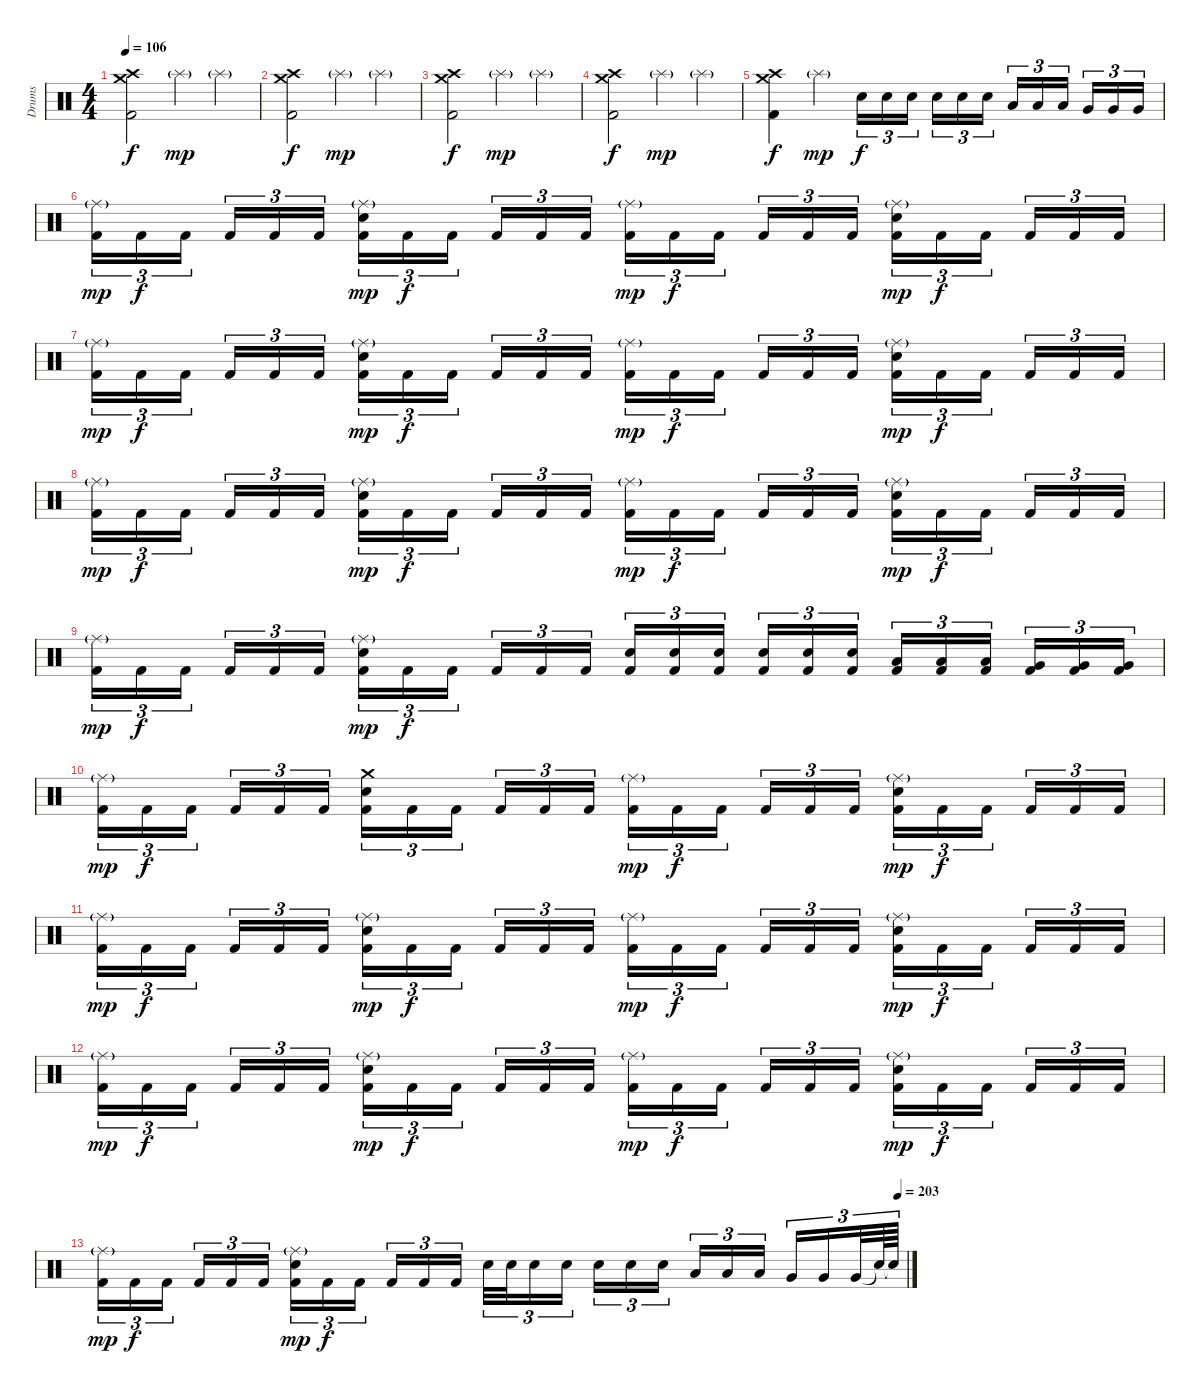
\track ("Drums" "Drums") {instrument percussion}
\staff {score}
\articulation defaults
\ts (4 4)
\tempo 106
\clef neutral
\ks c
("Crash medium (hit)" "Crash high (hit)" "Kick (hit) 2").2{dy f} "Splash (hit)"{g}.4{dy mp} "Splash (hit)"{g}.4 |
("Crash medium (hit)" "Crash high (hit)" "Kick (hit) 2").2{dy f} "Splash (hit)"{g}.4{dy mp} "Splash (hit)"{g}.4 |
("Crash medium (hit)" "Crash high (hit)" "Kick (hit) 2").2{dy f} "Splash (hit)"{g}.4{dy mp} "Splash (hit)"{g}.4 |
("Crash medium (hit)" "Crash high (hit)" "Kick (hit) 2").2{dy f} "Splash (hit)"{g}.4{dy mp} "Splash (hit)"{g}.4 |
("Crash medium (hit)" "Crash high (hit)" "Kick (hit) 2").4{dy f} "Splash (hit)"{g}.4{dy mp} "Electric Snare (hit)".16{tu (3 2) dy f} "Electric Snare (hit)".16{tu (3 2)} "Electric Snare (hit)".16{tu (3 2)} "Electric Snare (hit)".16{tu (3 2)} "Electric Snare (hit)".16{tu (3 2)} "Electric Snare (hit)".16{tu (3 2)} "Low Tom (hit)".16{tu (3 2)} "Low Tom (hit)".16{tu (3 2)} "Low Tom (hit)".16{tu (3 2)} "Very Low Tom (hit)".16{tu (3 2)} "Very Low Tom (hit)".16{tu (3 2)} "Very Low Tom (hit)".16{tu (3 2)} |
("Ride (middle)"{g} "Kick (hit) 2").16{tu (3 2) dy mp} "Kick (hit) 2".16{tu (3 2) dy f} "Kick (hit) 2".16{tu (3 2)} "Kick (hit) 2".16{tu (3 2)} "Kick (hit) 2".16{tu (3 2)} "Kick (hit) 2".16{tu (3 2)} ("Ride (middle)"{g} "Electric Snare (hit)" "Kick (hit) 2").16{tu (3 2) dy mp} "Kick (hit) 2".16{tu (3 2) dy f} "Kick (hit) 2".16{tu (3 2)} "Kick (hit) 2".16{tu (3 2)} "Kick (hit) 2".16{tu (3 2)} "Kick (hit) 2".16{tu (3 2)} ("Ride (middle)"{g} "Kick (hit) 2").16{tu (3 2) dy mp} "Kick (hit) 2".16{tu (3 2) dy f} "Kick (hit) 2".16{tu (3 2)} "Kick (hit) 2".16{tu (3 2)} "Kick (hit) 2".16{tu (3 2)} "Kick (hit) 2".16{tu (3 2)} ("Ride (middle)"{g} "Electric Snare (hit)" "Kick (hit) 2").16{tu (3 2) dy mp} "Kick (hit) 2".16{tu (3 2) dy f} "Kick (hit) 2".16{tu (3 2)} "Kick (hit) 2".16{tu (3 2)} "Kick (hit) 2".16{tu (3 2)} "Kick (hit) 2".16{tu (3 2)} |
("Ride (middle)"{g} "Kick (hit) 2").16{tu (3 2) dy mp} "Kick (hit) 2".16{tu (3 2) dy f} "Kick (hit) 2".16{tu (3 2)} "Kick (hit) 2".16{tu (3 2)} "Kick (hit) 2".16{tu (3 2)} "Kick (hit) 2".16{tu (3 2)} ("Ride (middle)"{g} "Electric Snare (hit)" "Kick (hit) 2").16{tu (3 2) dy mp} "Kick (hit) 2".16{tu (3 2) dy f} "Kick (hit) 2".16{tu (3 2)} "Kick (hit) 2".16{tu (3 2)} "Kick (hit) 2".16{tu (3 2)} "Kick (hit) 2".16{tu (3 2)} ("Ride (middle)"{g} "Kick (hit) 2").16{tu (3 2) dy mp} "Kick (hit) 2".16{tu (3 2) dy f} "Kick (hit) 2".16{tu (3 2)} "Kick (hit) 2".16{tu (3 2)} "Kick (hit) 2".16{tu (3 2)} "Kick (hit) 2".16{tu (3 2)} ("Ride (middle)"{g} "Electric Snare (hit)" "Kick (hit) 2").16{tu (3 2) dy mp} "Kick (hit) 2".16{tu (3 2) dy f} "Kick (hit) 2".16{tu (3 2)} "Kick (hit) 2".16{tu (3 2)} "Kick (hit) 2".16{tu (3 2)} "Kick (hit) 2".16{tu (3 2)} |
("Ride (middle)"{g} "Kick (hit) 2").16{tu (3 2) dy mp} "Kick (hit) 2".16{tu (3 2) dy f} "Kick (hit) 2".16{tu (3 2)} "Kick (hit) 2".16{tu (3 2)} "Kick (hit) 2".16{tu (3 2)} "Kick (hit) 2".16{tu (3 2)} ("Ride (middle)"{g} "Electric Snare (hit)" "Kick (hit) 2").16{tu (3 2) dy mp} "Kick (hit) 2".16{tu (3 2) dy f} "Kick (hit) 2".16{tu (3 2)} "Kick (hit) 2".16{tu (3 2)} "Kick (hit) 2".16{tu (3 2)} "Kick (hit) 2".16{tu (3 2)} ("Ride (middle)"{g} "Kick (hit) 2").16{tu (3 2) dy mp} "Kick (hit) 2".16{tu (3 2) dy f} "Kick (hit) 2".16{tu (3 2)} "Kick (hit) 2".16{tu (3 2)} "Kick (hit) 2".16{tu (3 2)} "Kick (hit) 2".16{tu (3 2)} ("Ride (middle)"{g} "Electric Snare (hit)" "Kick (hit) 2").16{tu (3 2) dy mp} "Kick (hit) 2".16{tu (3 2) dy f} "Kick (hit) 2".16{tu (3 2)} "Kick (hit) 2".16{tu (3 2)} "Kick (hit) 2".16{tu (3 2)} "Kick (hit) 2".16{tu (3 2)} |
("Ride (middle)"{g} "Kick (hit) 2").16{tu (3 2) dy mp} "Kick (hit) 2".16{tu (3 2) dy f} "Kick (hit) 2".16{tu (3 2)} "Kick (hit) 2".16{tu (3 2)} "Kick (hit) 2".16{tu (3 2)} "Kick (hit) 2".16{tu (3 2)} ("Ride (middle)"{g} "Electric Snare (hit)" "Kick (hit) 2").16{tu (3 2) dy mp} "Kick (hit) 2".16{tu (3 2) dy f} "Kick (hit) 2".16{tu (3 2)} "Kick (hit) 2".16{tu (3 2)} "Kick (hit) 2".16{tu (3 2)} "Kick (hit) 2".16{tu (3 2)} ("Electric Snare (hit)" "Kick (hit) 2").16{tu (3 2)} ("Electric Snare (hit)" "Kick (hit) 2").16{tu (3 2)} ("Electric Snare (hit)" "Kick (hit) 2").16{tu (3 2)} ("Electric Snare (hit)" "Kick (hit) 2").16{tu (3 2)} ("Electric Snare (hit)" "Kick (hit) 2").16{tu (3 2)} ("Electric Snare (hit)" "Kick (hit) 2").16{tu (3 2)} ("Low Tom (hit)" "Kick (hit) 2").16{tu (3 2)} ("Low Tom (hit)" "Kick (hit) 2").16{tu (3 2)} ("Low Tom (hit)" "Kick (hit) 2").16{tu (3 2)} ("Very Low Tom (hit)" "Kick (hit) 2").16{tu (3 2)} ("Very Low Tom (hit)" "Kick (hit) 2").16{tu (3 2)} ("Very Low Tom (hit)" "Kick (hit) 2").16{tu (3 2)} |
("Ride (middle)"{g} "Kick (hit) 2").16{tu (3 2) dy mp} "Kick (hit) 2".16{tu (3 2) dy f} "Kick (hit) 2".16{tu (3 2)} "Kick (hit) 2".16{tu (3 2)} "Kick (hit) 2".16{tu (3 2)} "Kick (hit) 2".16{tu (3 2)} ("Crash medium (hit)" "Electric Snare (hit)" "Kick (hit) 2").16{tu (3 2)} "Kick (hit) 2".16{tu (3 2)} "Kick (hit) 2".16{tu (3 2)} "Kick (hit) 2".16{tu (3 2)} "Kick (hit) 2".16{tu (3 2)} "Kick (hit) 2".16{tu (3 2)} ("Ride (middle)"{g} "Kick (hit) 2").16{tu (3 2) dy mp} "Kick (hit) 2".16{tu (3 2) dy f} "Kick (hit) 2".16{tu (3 2)} "Kick (hit) 2".16{tu (3 2)} "Kick (hit) 2".16{tu (3 2)} "Kick (hit) 2".16{tu (3 2)} ("Ride (middle)"{g} "Electric Snare (hit)" "Kick (hit) 2").16{tu (3 2) dy mp} "Kick (hit) 2".16{tu (3 2) dy f} "Kick (hit) 2".16{tu (3 2)} "Kick (hit) 2".16{tu (3 2)} "Kick (hit) 2".16{tu (3 2)} "Kick (hit) 2".16{tu (3 2)} |
("Ride (middle)"{g} "Kick (hit) 2").16{tu (3 2) dy mp} "Kick (hit) 2".16{tu (3 2) dy f} "Kick (hit) 2".16{tu (3 2)} "Kick (hit) 2".16{tu (3 2)} "Kick (hit) 2".16{tu (3 2)} "Kick (hit) 2".16{tu (3 2)} ("Ride (middle)"{g} "Electric Snare (hit)" "Kick (hit) 2").16{tu (3 2) dy mp} "Kick (hit) 2".16{tu (3 2) dy f} "Kick (hit) 2".16{tu (3 2)} "Kick (hit) 2".16{tu (3 2)} "Kick (hit) 2".16{tu (3 2)} "Kick (hit) 2".16{tu (3 2)} ("Ride (middle)"{g} "Kick (hit) 2").16{tu (3 2) dy mp} "Kick (hit) 2".16{tu (3 2) dy f} "Kick (hit) 2".16{tu (3 2)} "Kick (hit) 2".16{tu (3 2)} "Kick (hit) 2".16{tu (3 2)} "Kick (hit) 2".16{tu (3 2)} ("Ride (middle)"{g} "Electric Snare (hit)" "Kick (hit) 2").16{tu (3 2) dy mp} "Kick (hit) 2".16{tu (3 2) dy f} "Kick (hit) 2".16{tu (3 2)} "Kick (hit) 2".16{tu (3 2)} "Kick (hit) 2".16{tu (3 2)} "Kick (hit) 2".16{tu (3 2)} |
("Ride (middle)"{g} "Kick (hit) 2").16{tu (3 2) dy mp} "Kick (hit) 2".16{tu (3 2) dy f} "Kick (hit) 2".16{tu (3 2)} "Kick (hit) 2".16{tu (3 2)} "Kick (hit) 2".16{tu (3 2)} "Kick (hit) 2".16{tu (3 2)} ("Ride (middle)"{g} "Electric Snare (hit)" "Kick (hit) 2").16{tu (3 2) dy mp} "Kick (hit) 2".16{tu (3 2) dy f} "Kick (hit) 2".16{tu (3 2)} "Kick (hit) 2".16{tu (3 2)} "Kick (hit) 2".16{tu (3 2)} "Kick (hit) 2".16{tu (3 2)} ("Ride (middle)"{g} "Kick (hit) 2").16{tu (3 2) dy mp} "Kick (hit) 2".16{tu (3 2) dy f} "Kick (hit) 2".16{tu (3 2)} "Kick (hit) 2".16{tu (3 2)} "Kick (hit) 2".16{tu (3 2)} "Kick (hit) 2".16{tu (3 2)} ("Ride (middle)"{g} "Electric Snare (hit)" "Kick (hit) 2").16{tu (3 2) dy mp} "Kick (hit) 2".16{tu (3 2) dy f} "Kick (hit) 2".16{tu (3 2)} "Kick (hit) 2".16{tu (3 2)} "Kick (hit) 2".16{tu (3 2)} "Kick (hit) 2".16{tu (3 2)} |
\tempo (203 0.9895833333333334)
("Ride (middle)"{g} "Kick (hit) 2").16{tu (3 2) dy mp} "Kick (hit) 2".16{tu (3 2) dy f} "Kick (hit) 2".16{tu (3 2)} "Kick (hit) 2".16{tu (3 2)} "Kick (hit) 2".16{tu (3 2)} "Kick (hit) 2".16{tu (3 2)} ("Ride (middle)"{g} "Electric Snare (hit)" "Kick (hit) 2").16{tu (3 2) dy mp} "Kick (hit) 2".16{tu (3 2) dy f} "Kick (hit) 2".16{tu (3 2)} "Kick (hit) 2".16{tu (3 2)} "Kick (hit) 2".16{tu (3 2)} "Kick (hit) 2".16{tu (3 2)} "Electric Snare (hit)".32{tu (3 2)} "Electric Snare (hit)".32{tu (3 2)} "Electric Snare (hit)".16{tu (3 2)} "Electric Snare (hit)".16{tu (3 2)} "Electric Snare (hit)".16{tu (3 2)} "Electric Snare (hit)".16{tu (3 2)} "Electric Snare (hit)".16{tu (3 2)} "Low Tom (hit)".16{tu (3 2)} "Low Tom (hit)".16{tu (3 2)} "Low Tom (hit)".16{tu (3 2)} "Very Low Tom (hit)".16{tu (3 2)} "Very Low Tom (hit)".16{tu (3 2)} "Very Low Tom (hit)".32{tu (3 2)} "Snare (hit)"{t}.64{tu (3 2)} "Snare (hit)"{t}.64{tu (3 2)}
